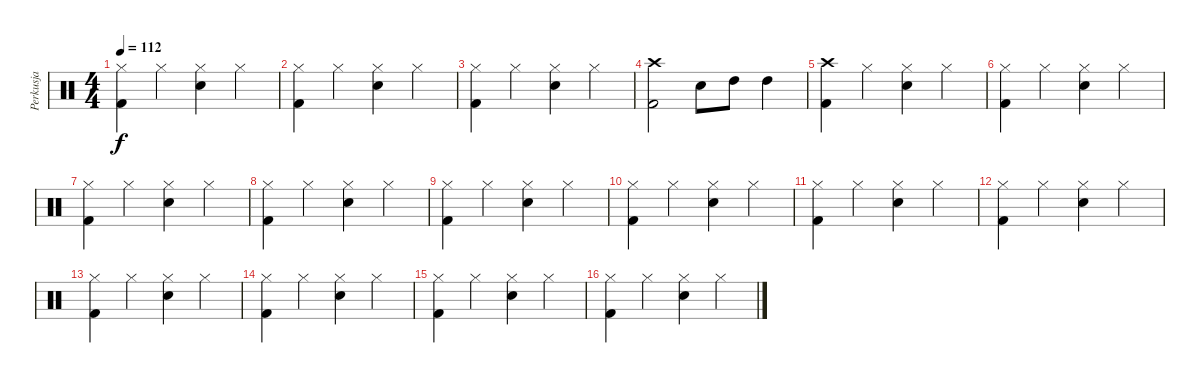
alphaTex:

\track ("Perkusja" "Perkusja") {instrument percussion}
\staff {score}
\articulation defaults
\ts (4 4)
\tempo 112
\clef neutral
\ks c
("Kick (hit) 2" "Hi-Hat (closed)").4{dy f} "Hi-Hat (closed)".4 ("Snare (hit) 2" "Hi-Hat (closed)").4 "Hi-Hat (closed)".4 |
("Kick (hit) 2" "Hi-Hat (closed)").4 "Hi-Hat (closed)".4 ("Snare (hit) 2" "Hi-Hat (closed)").4 "Hi-Hat (closed)".4 |
("Kick (hit) 2" "Hi-Hat (closed)").4 "Hi-Hat (closed)".4 ("Snare (hit) 2" "Hi-Hat (closed)").4 "Hi-Hat (closed)".4 |
("Kick (hit) 2" "Crash high (hit)").2 "Snare (hit) 2".8 "High Tom (hit)".8 "High Tom (hit)".4 |
("Kick (hit) 2" "Crash high (hit)").4 "Hi-Hat (closed)".4 ("Snare (hit) 2" "Hi-Hat (closed)").4 "Hi-Hat (closed)".4 |
("Kick (hit) 2" "Hi-Hat (closed)").4 "Hi-Hat (closed)".4 ("Snare (hit) 2" "Hi-Hat (closed)").4 "Hi-Hat (closed)".4 |
("Kick (hit) 2" "Hi-Hat (closed)").4 "Hi-Hat (closed)".4 ("Snare (hit) 2" "Hi-Hat (closed)").4 "Hi-Hat (closed)".4 |
("Kick (hit) 2" "Hi-Hat (closed)").4 "Hi-Hat (closed)".4 ("Snare (hit) 2" "Hi-Hat (closed)").4 "Hi-Hat (closed)".4 |
("Kick (hit) 2" "Hi-Hat (closed)").4 "Hi-Hat (closed)".4 ("Snare (hit) 2" "Hi-Hat (closed)").4 "Hi-Hat (closed)".4 |
("Kick (hit) 2" "Hi-Hat (closed)").4 "Hi-Hat (closed)".4 ("Snare (hit) 2" "Hi-Hat (closed)").4 "Hi-Hat (closed)".4 |
("Kick (hit) 2" "Hi-Hat (closed)").4 "Hi-Hat (closed)".4 ("Snare (hit) 2" "Hi-Hat (closed)").4 "Hi-Hat (closed)".4 |
("Kick (hit) 2" "Hi-Hat (closed)").4 "Hi-Hat (closed)".4 ("Snare (hit) 2" "Hi-Hat (closed)").4 "Hi-Hat (closed)".4 |
("Kick (hit) 2" "Hi-Hat (closed)").4 "Hi-Hat (closed)".4 ("Snare (hit) 2" "Hi-Hat (closed)").4 "Hi-Hat (closed)".4 |
("Kick (hit) 2" "Hi-Hat (closed)").4 "Hi-Hat (closed)".4 ("Snare (hit) 2" "Hi-Hat (closed)").4 "Hi-Hat (closed)".4 |
("Kick (hit) 2" "Hi-Hat (closed)").4 "Hi-Hat (closed)".4 ("Snare (hit) 2" "Hi-Hat (closed)").4 "Hi-Hat (closed)".4 |
("Kick (hit) 2" "Hi-Hat (closed)").4 "Hi-Hat (closed)".4 ("Snare (hit) 2" "Hi-Hat (closed)").4 "Hi-Hat (closed)".4
